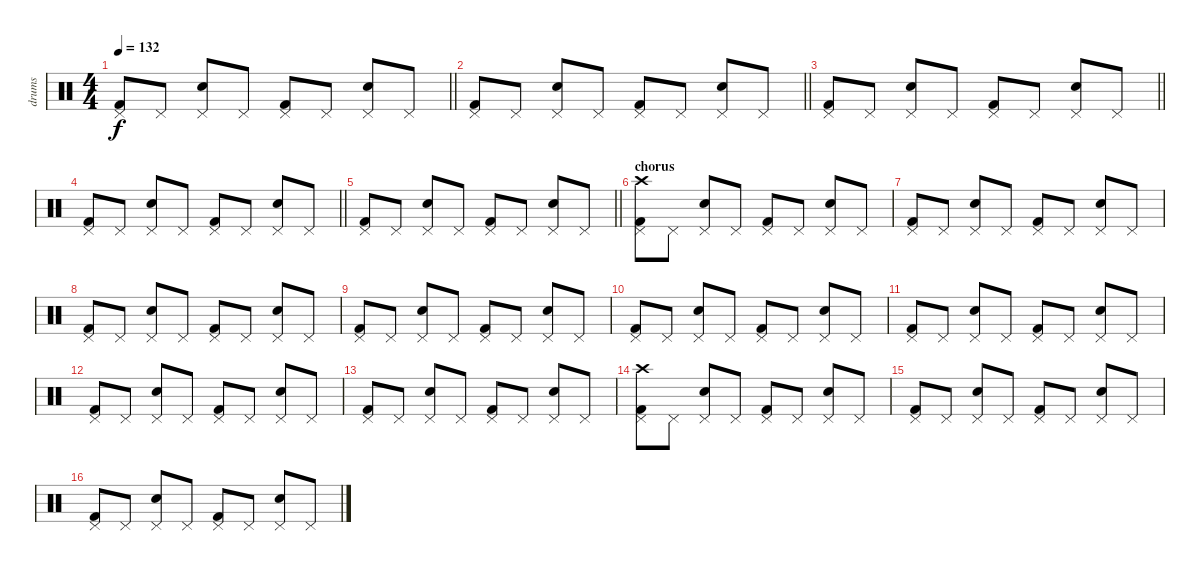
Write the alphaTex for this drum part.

\track ("drums" "drums") {instrument percussion}
\staff {score}
\articulation defaults
\ts (4 4)
\tempo 132
\clef neutral
\barLineRight lightlight
\ks c
("Kick (hit) 2" "Pedal Hi-Hat (hit)").8{dy f} "Pedal Hi-Hat (hit)".8 ("Electric Snare (hit)" "Pedal Hi-Hat (hit)").8 "Pedal Hi-Hat (hit)".8 ("Kick (hit) 2" "Pedal Hi-Hat (hit)").8 "Pedal Hi-Hat (hit)".8 ("Electric Snare (hit)" "Pedal Hi-Hat (hit)").8 "Pedal Hi-Hat (hit)".8 |
\barLineRight lightlight
("Kick (hit) 2" "Pedal Hi-Hat (hit)").8 "Pedal Hi-Hat (hit)".8 ("Electric Snare (hit)" "Pedal Hi-Hat (hit)").8 "Pedal Hi-Hat (hit)".8 ("Kick (hit) 2" "Pedal Hi-Hat (hit)").8 "Pedal Hi-Hat (hit)".8 ("Electric Snare (hit)" "Pedal Hi-Hat (hit)").8 "Pedal Hi-Hat (hit)".8 |
\barLineRight lightlight
("Kick (hit) 2" "Pedal Hi-Hat (hit)").8 "Pedal Hi-Hat (hit)".8 ("Electric Snare (hit)" "Pedal Hi-Hat (hit)").8 "Pedal Hi-Hat (hit)".8 ("Kick (hit) 2" "Pedal Hi-Hat (hit)").8 "Pedal Hi-Hat (hit)".8 ("Electric Snare (hit)" "Pedal Hi-Hat (hit)").8 "Pedal Hi-Hat (hit)".8 |
\barLineRight lightlight
("Kick (hit) 2" "Pedal Hi-Hat (hit)").8 "Pedal Hi-Hat (hit)".8 ("Electric Snare (hit)" "Pedal Hi-Hat (hit)").8 "Pedal Hi-Hat (hit)".8 ("Kick (hit) 2" "Pedal Hi-Hat (hit)").8 "Pedal Hi-Hat (hit)".8 ("Electric Snare (hit)" "Pedal Hi-Hat (hit)").8 "Pedal Hi-Hat (hit)".8 |
\barLineRight lightlight
("Kick (hit) 2" "Pedal Hi-Hat (hit)").8 "Pedal Hi-Hat (hit)".8 ("Electric Snare (hit)" "Pedal Hi-Hat (hit)").8 "Pedal Hi-Hat (hit)".8 ("Kick (hit) 2" "Pedal Hi-Hat (hit)").8 "Pedal Hi-Hat (hit)".8 ("Electric Snare (hit)" "Pedal Hi-Hat (hit)").8 "Pedal Hi-Hat (hit)".8 |
\section ("" "chorus ")
("Kick (hit) 2" "Pedal Hi-Hat (hit)" "Crash high (hit)").8 "Pedal Hi-Hat (hit)".8 ("Electric Snare (hit)" "Pedal Hi-Hat (hit)").8 "Pedal Hi-Hat (hit)".8 ("Kick (hit) 2" "Pedal Hi-Hat (hit)").8 "Pedal Hi-Hat (hit)".8 ("Electric Snare (hit)" "Pedal Hi-Hat (hit)").8 "Pedal Hi-Hat (hit)".8 |
("Kick (hit) 2" "Pedal Hi-Hat (hit)").8 "Pedal Hi-Hat (hit)".8 ("Electric Snare (hit)" "Pedal Hi-Hat (hit)").8 "Pedal Hi-Hat (hit)".8 ("Kick (hit) 2" "Pedal Hi-Hat (hit)").8 "Pedal Hi-Hat (hit)".8 ("Electric Snare (hit)" "Pedal Hi-Hat (hit)").8 "Pedal Hi-Hat (hit)".8 |
("Kick (hit) 2" "Pedal Hi-Hat (hit)").8 "Pedal Hi-Hat (hit)".8 ("Electric Snare (hit)" "Pedal Hi-Hat (hit)").8 "Pedal Hi-Hat (hit)".8 ("Kick (hit) 2" "Pedal Hi-Hat (hit)").8 "Pedal Hi-Hat (hit)".8 ("Electric Snare (hit)" "Pedal Hi-Hat (hit)").8 "Pedal Hi-Hat (hit)".8 |
("Kick (hit) 2" "Pedal Hi-Hat (hit)").8 "Pedal Hi-Hat (hit)".8 ("Electric Snare (hit)" "Pedal Hi-Hat (hit)").8 "Pedal Hi-Hat (hit)".8 ("Kick (hit) 2" "Pedal Hi-Hat (hit)").8 "Pedal Hi-Hat (hit)".8 ("Electric Snare (hit)" "Pedal Hi-Hat (hit)").8 "Pedal Hi-Hat (hit)".8 |
("Kick (hit) 2" "Pedal Hi-Hat (hit)").8 "Pedal Hi-Hat (hit)".8 ("Electric Snare (hit)" "Pedal Hi-Hat (hit)").8 "Pedal Hi-Hat (hit)".8 ("Kick (hit) 2" "Pedal Hi-Hat (hit)").8 "Pedal Hi-Hat (hit)".8 ("Electric Snare (hit)" "Pedal Hi-Hat (hit)").8 "Pedal Hi-Hat (hit)".8 |
("Kick (hit) 2" "Pedal Hi-Hat (hit)").8 "Pedal Hi-Hat (hit)".8 ("Electric Snare (hit)" "Pedal Hi-Hat (hit)").8 "Pedal Hi-Hat (hit)".8 ("Kick (hit) 2" "Pedal Hi-Hat (hit)").8 "Pedal Hi-Hat (hit)".8 ("Electric Snare (hit)" "Pedal Hi-Hat (hit)").8 "Pedal Hi-Hat (hit)".8 |
("Kick (hit) 2" "Pedal Hi-Hat (hit)").8 "Pedal Hi-Hat (hit)".8 ("Electric Snare (hit)" "Pedal Hi-Hat (hit)").8 "Pedal Hi-Hat (hit)".8 ("Kick (hit) 2" "Pedal Hi-Hat (hit)").8 "Pedal Hi-Hat (hit)".8 ("Electric Snare (hit)" "Pedal Hi-Hat (hit)").8 "Pedal Hi-Hat (hit)".8 |
("Kick (hit) 2" "Pedal Hi-Hat (hit)").8 "Pedal Hi-Hat (hit)".8 ("Electric Snare (hit)" "Pedal Hi-Hat (hit)").8 "Pedal Hi-Hat (hit)".8 ("Kick (hit) 2" "Pedal Hi-Hat (hit)").8 "Pedal Hi-Hat (hit)".8 ("Electric Snare (hit)" "Pedal Hi-Hat (hit)").8 "Pedal Hi-Hat (hit)".8 |
("Kick (hit) 2" "Pedal Hi-Hat (hit)" "Crash high (hit)").8 "Pedal Hi-Hat (hit)".8 ("Electric Snare (hit)" "Pedal Hi-Hat (hit)").8 "Pedal Hi-Hat (hit)".8 ("Kick (hit) 2" "Pedal Hi-Hat (hit)").8 "Pedal Hi-Hat (hit)".8 ("Electric Snare (hit)" "Pedal Hi-Hat (hit)").8 "Pedal Hi-Hat (hit)".8 |
("Kick (hit) 2" "Pedal Hi-Hat (hit)").8 "Pedal Hi-Hat (hit)".8 ("Electric Snare (hit)" "Pedal Hi-Hat (hit)").8 "Pedal Hi-Hat (hit)".8 ("Kick (hit) 2" "Pedal Hi-Hat (hit)").8 "Pedal Hi-Hat (hit)".8 ("Electric Snare (hit)" "Pedal Hi-Hat (hit)").8 "Pedal Hi-Hat (hit)".8 |
("Kick (hit) 2" "Pedal Hi-Hat (hit)").8 "Pedal Hi-Hat (hit)".8 ("Electric Snare (hit)" "Pedal Hi-Hat (hit)").8 "Pedal Hi-Hat (hit)".8 ("Kick (hit) 2" "Pedal Hi-Hat (hit)").8 "Pedal Hi-Hat (hit)".8 ("Electric Snare (hit)" "Pedal Hi-Hat (hit)").8 "Pedal Hi-Hat (hit)".8
